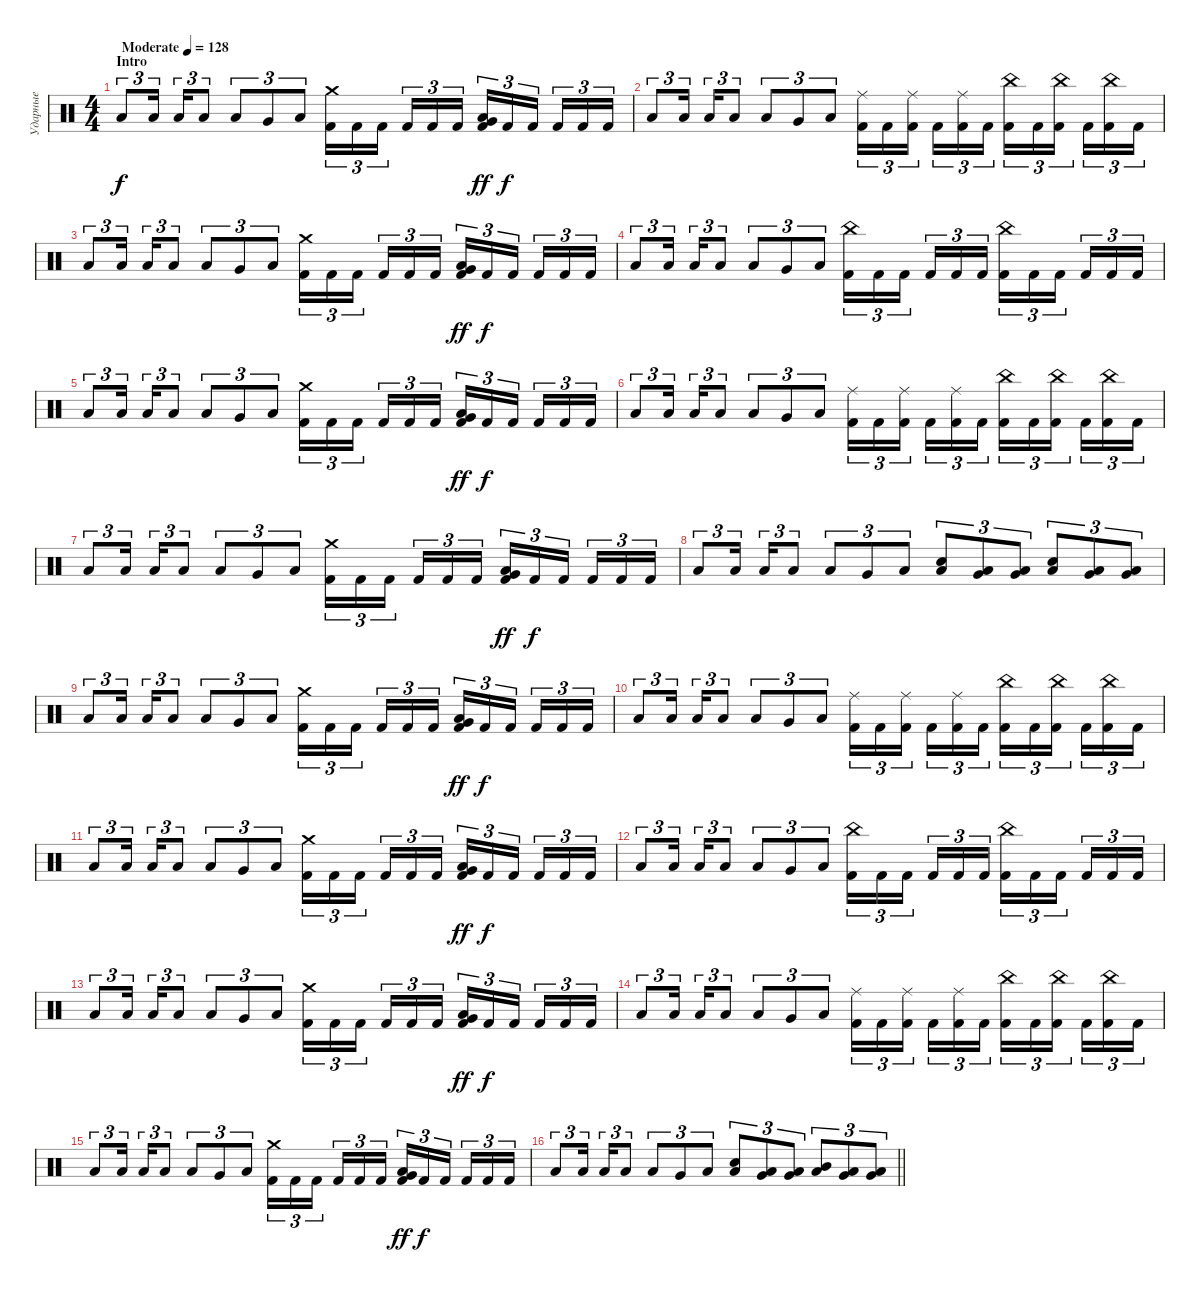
\track ("Ударные" "Ударные") {instrument percussion}
\staff {score}
\articulation defaults
\ts (4 4)
\section ("" "Intro")
\tempo (128 "Moderate")
\clef neutral
\ks c "Low Tom (hit)".8{tu (3 2) dy f} "Low Tom (hit)".16{tu (3 2) beam splitsecondary} "Low Tom (hit)".16{tu (3 2)} "Low Tom (hit)".8{tu (3 2)} "Low Tom (hit)".8{tu (3 2)} "Very Low Tom (hit)".8{tu (3 2)} "Low Floor Tom (hit)".8{tu (3 2)}
("Crash medium (hit)" "Kick (hit) 2").16{tu (3 2)} "Kick (hit) 2".16{tu (3 2)} "Kick (hit) 2".16{tu (3 2) beam splitsecondary} "Kick (hit) 2".16{tu (3 2)} "Kick (hit) 2".16{tu (3 2)} "Kick (hit) 2".16{tu (3 2)} ("Very Low Tom (hit)" "Low Floor Tom (hit)" "Kick (hit) 2").16{tu (3 2) dy ff} "Kick (hit) 2".16{tu (3 2) dy f} "Kick (hit) 2".16{tu (3 2) beam splitsecondary} "Kick (hit) 2".16{tu (3 2)} "Kick (hit) 2".16{tu (3 2)} "Kick (hit) 2".16{tu (3 2)} |
"Low Tom (hit)".8{tu (3 2)} "Low Tom (hit)".16{tu (3 2) beam splitsecondary} "Low Tom (hit)".16{tu (3 2)} "Low Tom (hit)".8{tu (3 2)} "Low Tom (hit)".8{tu (3 2)} "Very Low Tom (hit)".8{tu (3 2)} "Low Floor Tom (hit)".8{tu (3 2)} ("Ride (middle)" "Kick (hit) 2").16{tu (3 2)} "Kick (hit) 2".16{tu (3 2)} ("Ride (middle)" "Kick (hit) 2").16{tu (3 2) beam splitsecondary} "Kick (hit) 2".16{tu (3 2)} ("Ride (middle)" "Kick (hit) 2").16{tu (3 2)} "Kick (hit) 2".16{tu (3 2)} ("China (hit)" "Kick (hit) 2").16{tu (3 2)} "Kick (hit) 2".16{tu (3 2)} ("China (hit)" "Kick (hit) 2").16{tu (3 2) beam splitsecondary} "Kick (hit) 2".16{tu (3 2)} ("China (hit)" "Kick (hit) 2").16{tu (3 2)} "Kick (hit) 2".16{tu (3 2)} |
"Low Tom (hit)".8{tu (3 2)} "Low Tom (hit)".16{tu (3 2) beam splitsecondary} "Low Tom (hit)".16{tu (3 2)} "Low Tom (hit)".8{tu (3 2)} "Low Tom (hit)".8{tu (3 2)} "Very Low Tom (hit)".8{tu (3 2)} "Low Floor Tom (hit)".8{tu (3 2)} ("Crash medium (hit)" "Kick (hit) 2").16{tu (3 2)} "Kick (hit) 2".16{tu (3 2)} "Kick (hit) 2".16{tu (3 2) beam splitsecondary} "Kick (hit) 2".16{tu (3 2)} "Kick (hit) 2".16{tu (3 2)} "Kick (hit) 2".16{tu (3 2)} ("Very Low Tom (hit)" "Low Floor Tom (hit)" "Kick (hit) 2").16{tu (3 2) dy ff} "Kick (hit) 2".16{tu (3 2) dy f} "Kick (hit) 2".16{tu (3 2) beam splitsecondary} "Kick (hit) 2".16{tu (3 2)} "Kick (hit) 2".16{tu (3 2)} "Kick (hit) 2".16{tu (3 2)} |
"Low Tom (hit)".8{tu (3 2)} "Low Tom (hit)".16{tu (3 2) beam splitsecondary} "Low Tom (hit)".16{tu (3 2)} "Low Tom (hit)".8{tu (3 2)} "Low Tom (hit)".8{tu (3 2)} "Very Low Tom (hit)".8{tu (3 2)} "Low Floor Tom (hit)".8{tu (3 2)} ("China (hit)" "Kick (hit) 2").16{tu (3 2)} "Kick (hit) 2".16{tu (3 2)} "Kick (hit) 2".16{tu (3 2) beam splitsecondary} "Kick (hit) 2".16{tu (3 2)} "Kick (hit) 2".16{tu (3 2)} "Kick (hit) 2".16{tu (3 2)} ("China (hit)" "Kick (hit) 2").16{tu (3 2)} "Kick (hit) 2".16{tu (3 2)} "Kick (hit) 2".16{tu (3 2) beam splitsecondary} "Kick (hit) 2".16{tu (3 2)} "Kick (hit) 2".16{tu (3 2)} "Kick (hit) 2".16{tu (3 2)} |
"Low Tom (hit)".8{tu (3 2)} "Low Tom (hit)".16{tu (3 2) beam splitsecondary} "Low Tom (hit)".16{tu (3 2)} "Low Tom (hit)".8{tu (3 2)} "Low Tom (hit)".8{tu (3 2)} "Very Low Tom (hit)".8{tu (3 2)} "Low Floor Tom (hit)".8{tu (3 2)} ("Crash medium (hit)" "Kick (hit) 2").16{tu (3 2)} "Kick (hit) 2".16{tu (3 2)} "Kick (hit) 2".16{tu (3 2) beam splitsecondary} "Kick (hit) 2".16{tu (3 2)} "Kick (hit) 2".16{tu (3 2)} "Kick (hit) 2".16{tu (3 2)} ("Very Low Tom (hit)" "Low Floor Tom (hit)" "Kick (hit) 2").16{tu (3 2) dy ff} "Kick (hit) 2".16{tu (3 2) dy f} "Kick (hit) 2".16{tu (3 2) beam splitsecondary} "Kick (hit) 2".16{tu (3 2)} "Kick (hit) 2".16{tu (3 2)} "Kick (hit) 2".16{tu (3 2)} |
"Low Tom (hit)".8{tu (3 2)} "Low Tom (hit)".16{tu (3 2) beam splitsecondary} "Low Tom (hit)".16{tu (3 2)} "Low Tom (hit)".8{tu (3 2)} "Low Tom (hit)".8{tu (3 2)} "Very Low Tom (hit)".8{tu (3 2)} "Low Floor Tom (hit)".8{tu (3 2)} ("Ride (middle)" "Kick (hit) 2").16{tu (3 2)} "Kick (hit) 2".16{tu (3 2)} ("Ride (middle)" "Kick (hit) 2").16{tu (3 2) beam splitsecondary} "Kick (hit) 2".16{tu (3 2)} ("Ride (middle)" "Kick (hit) 2").16{tu (3 2)} "Kick (hit) 2".16{tu (3 2)} ("China (hit)" "Kick (hit) 2").16{tu (3 2)} "Kick (hit) 2".16{tu (3 2)} ("China (hit)" "Kick (hit) 2").16{tu (3 2) beam splitsecondary} "Kick (hit) 2".16{tu (3 2)} ("China (hit)" "Kick (hit) 2").16{tu (3 2)} "Kick (hit) 2".16{tu (3 2)} |
"Low Tom (hit)".8{tu (3 2)} "Low Tom (hit)".16{tu (3 2) beam splitsecondary} "Low Tom (hit)".16{tu (3 2)} "Low Tom (hit)".8{tu (3 2)} "Low Tom (hit)".8{tu (3 2)} "Very Low Tom (hit)".8{tu (3 2)} "Low Floor Tom (hit)".8{tu (3 2)} ("Crash medium (hit)" "Kick (hit) 2").16{tu (3 2)} "Kick (hit) 2".16{tu (3 2)} "Kick (hit) 2".16{tu (3 2) beam splitsecondary} "Kick (hit) 2".16{tu (3 2)} "Kick (hit) 2".16{tu (3 2)} "Kick (hit) 2".16{tu (3 2)} ("Very Low Tom (hit)" "Low Floor Tom (hit)" "Kick (hit) 2").16{tu (3 2) dy ff} "Kick (hit) 2".16{tu (3 2) dy f} "Kick (hit) 2".16{tu (3 2) beam splitsecondary} "Kick (hit) 2".16{tu (3 2)} "Kick (hit) 2".16{tu (3 2)} "Kick (hit) 2".16{tu (3 2)} |
"Low Tom (hit)".8{tu (3 2)} "Low Tom (hit)".16{tu (3 2) beam splitsecondary} "Low Tom (hit)".16{tu (3 2)} "Low Tom (hit)".8{tu (3 2)} "Low Tom (hit)".8{tu (3 2)} "Very Low Tom (hit)".8{tu (3 2)} "Low Floor Tom (hit)".8{tu (3 2)} ("Low Tom (hit)" "Electric Snare (hit)").8{tu (3 2)} ("Very Low Tom (hit)" "Low Tom (hit)").8{tu (3 2)} ("Low Floor Tom (hit)" "Very Low Tom (hit)").8{tu (3 2)} ("Low Tom (hit)" "Electric Snare (hit)").8{tu (3 2)} ("Very Low Tom (hit)" "Low Tom (hit)").8{tu (3 2)} ("Low Floor Tom (hit)" "Very Low Tom (hit)").8{tu (3 2)} |
"Low Tom (hit)".8{tu (3 2)} "Low Tom (hit)".16{tu (3 2) beam splitsecondary} "Low Tom (hit)".16{tu (3 2)} "Low Tom (hit)".8{tu (3 2)} "Low Tom (hit)".8{tu (3 2)} "Very Low Tom (hit)".8{tu (3 2)} "Low Floor Tom (hit)".8{tu (3 2)} ("Crash medium (hit)" "Kick (hit) 2").16{tu (3 2)} "Kick (hit) 2".16{tu (3 2)} "Kick (hit) 2".16{tu (3 2) beam splitsecondary} "Kick (hit) 2".16{tu (3 2)} "Kick (hit) 2".16{tu (3 2)} "Kick (hit) 2".16{tu (3 2)} ("Very Low Tom (hit)" "Low Floor Tom (hit)" "Kick (hit) 2").16{tu (3 2) dy ff} "Kick (hit) 2".16{tu (3 2) dy f} "Kick (hit) 2".16{tu (3 2) beam splitsecondary} "Kick (hit) 2".16{tu (3 2)} "Kick (hit) 2".16{tu (3 2)} "Kick (hit) 2".16{tu (3 2)} |
"Low Tom (hit)".8{tu (3 2)} "Low Tom (hit)".16{tu (3 2) beam splitsecondary} "Low Tom (hit)".16{tu (3 2)} "Low Tom (hit)".8{tu (3 2)} "Low Tom (hit)".8{tu (3 2)} "Very Low Tom (hit)".8{tu (3 2)} "Low Floor Tom (hit)".8{tu (3 2)} ("Ride (middle)" "Kick (hit) 2").16{tu (3 2)} "Kick (hit) 2".16{tu (3 2)} ("Ride (middle)" "Kick (hit) 2").16{tu (3 2) beam splitsecondary} "Kick (hit) 2".16{tu (3 2)} ("Ride (middle)" "Kick (hit) 2").16{tu (3 2)} "Kick (hit) 2".16{tu (3 2)} ("China (hit)" "Kick (hit) 2").16{tu (3 2)} "Kick (hit) 2".16{tu (3 2)} ("China (hit)" "Kick (hit) 2").16{tu (3 2) beam splitsecondary} "Kick (hit) 2".16{tu (3 2)} ("China (hit)" "Kick (hit) 2").16{tu (3 2)} "Kick (hit) 2".16{tu (3 2)} |
"Low Tom (hit)".8{tu (3 2)} "Low Tom (hit)".16{tu (3 2) beam splitsecondary} "Low Tom (hit)".16{tu (3 2)} "Low Tom (hit)".8{tu (3 2)} "Low Tom (hit)".8{tu (3 2)} "Very Low Tom (hit)".8{tu (3 2)} "Low Floor Tom (hit)".8{tu (3 2)} ("Crash medium (hit)" "Kick (hit) 2").16{tu (3 2)} "Kick (hit) 2".16{tu (3 2)} "Kick (hit) 2".16{tu (3 2) beam splitsecondary} "Kick (hit) 2".16{tu (3 2)} "Kick (hit) 2".16{tu (3 2)} "Kick (hit) 2".16{tu (3 2)} ("Very Low Tom (hit)" "Low Floor Tom (hit)" "Kick (hit) 2").16{tu (3 2) dy ff} "Kick (hit) 2".16{tu (3 2) dy f} "Kick (hit) 2".16{tu (3 2) beam splitsecondary} "Kick (hit) 2".16{tu (3 2)} "Kick (hit) 2".16{tu (3 2)} "Kick (hit) 2".16{tu (3 2)} |
"Low Tom (hit)".8{tu (3 2)} "Low Tom (hit)".16{tu (3 2) beam splitsecondary} "Low Tom (hit)".16{tu (3 2)} "Low Tom (hit)".8{tu (3 2)} "Low Tom (hit)".8{tu (3 2)} "Very Low Tom (hit)".8{tu (3 2)} "Low Floor Tom (hit)".8{tu (3 2)} ("China (hit)" "Kick (hit) 2").16{tu (3 2)} "Kick (hit) 2".16{tu (3 2)} "Kick (hit) 2".16{tu (3 2) beam splitsecondary} "Kick (hit) 2".16{tu (3 2)} "Kick (hit) 2".16{tu (3 2)} "Kick (hit) 2".16{tu (3 2)} ("China (hit)" "Kick (hit) 2").16{tu (3 2)} "Kick (hit) 2".16{tu (3 2)} "Kick (hit) 2".16{tu (3 2) beam splitsecondary} "Kick (hit) 2".16{tu (3 2)} "Kick (hit) 2".16{tu (3 2)} "Kick (hit) 2".16{tu (3 2)} |
"Low Tom (hit)".8{tu (3 2)} "Low Tom (hit)".16{tu (3 2) beam splitsecondary} "Low Tom (hit)".16{tu (3 2)} "Low Tom (hit)".8{tu (3 2)} "Low Tom (hit)".8{tu (3 2)} "Very Low Tom (hit)".8{tu (3 2)} "Low Floor Tom (hit)".8{tu (3 2)} ("Crash medium (hit)" "Kick (hit) 2").16{tu (3 2)} "Kick (hit) 2".16{tu (3 2)} "Kick (hit) 2".16{tu (3 2) beam splitsecondary} "Kick (hit) 2".16{tu (3 2)} "Kick (hit) 2".16{tu (3 2)} "Kick (hit) 2".16{tu (3 2)} ("Very Low Tom (hit)" "Low Floor Tom (hit)" "Kick (hit) 2").16{tu (3 2) dy ff} "Kick (hit) 2".16{tu (3 2) dy f} "Kick (hit) 2".16{tu (3 2) beam splitsecondary} "Kick (hit) 2".16{tu (3 2)} "Kick (hit) 2".16{tu (3 2)} "Kick (hit) 2".16{tu (3 2)} |
"Low Tom (hit)".8{tu (3 2)} "Low Tom (hit)".16{tu (3 2) beam splitsecondary} "Low Tom (hit)".16{tu (3 2)} "Low Tom (hit)".8{tu (3 2)} "Low Tom (hit)".8{tu (3 2)} "Very Low Tom (hit)".8{tu (3 2)} "Low Floor Tom (hit)".8{tu (3 2)} ("Ride (middle)" "Kick (hit) 2").16{tu (3 2)} "Kick (hit) 2".16{tu (3 2)} ("Ride (middle)" "Kick (hit) 2").16{tu (3 2) beam splitsecondary} "Kick (hit) 2".16{tu (3 2)} ("Ride (middle)" "Kick (hit) 2").16{tu (3 2)} "Kick (hit) 2".16{tu (3 2)} ("China (hit)" "Kick (hit) 2").16{tu (3 2)} "Kick (hit) 2".16{tu (3 2)} ("China (hit)" "Kick (hit) 2").16{tu (3 2) beam splitsecondary} "Kick (hit) 2".16{tu (3 2)} ("China (hit)" "Kick (hit) 2").16{tu (3 2)} "Kick (hit) 2".16{tu (3 2)} |
"Low Tom (hit)".8{tu (3 2)} "Low Tom (hit)".16{tu (3 2) beam splitsecondary} "Low Tom (hit)".16{tu (3 2)} "Low Tom (hit)".8{tu (3 2)} "Low Tom (hit)".8{tu (3 2)} "Very Low Tom (hit)".8{tu (3 2)} "Low Floor Tom (hit)".8{tu (3 2)} ("Crash medium (hit)" "Kick (hit) 2").16{tu (3 2)} "Kick (hit) 2".16{tu (3 2)} "Kick (hit) 2".16{tu (3 2) beam splitsecondary} "Kick (hit) 2".16{tu (3 2)} "Kick (hit) 2".16{tu (3 2)} "Kick (hit) 2".16{tu (3 2)} ("Very Low Tom (hit)" "Low Floor Tom (hit)" "Kick (hit) 2").16{tu (3 2) dy ff} "Kick (hit) 2".16{tu (3 2) dy f} "Kick (hit) 2".16{tu (3 2) beam splitsecondary} "Kick (hit) 2".16{tu (3 2)} "Kick (hit) 2".16{tu (3 2)} "Kick (hit) 2".16{tu (3 2)} |
\barLineRight lightlight "Low Tom (hit)".8{tu (3 2)} "Low Tom (hit)".16{tu (3 2) beam splitsecondary} "Low Tom (hit)".16{tu (3 2)} "Low Tom (hit)".8{tu (3 2)} "Low Tom (hit)".8{tu (3 2)} "Very Low Tom (hit)".8{tu (3 2)} "Low Floor Tom (hit)".8{tu (3 2)}
("Low Tom (hit)" "Electric Snare (hit)").8{tu (3 2)} ("Very Low Tom (hit)" "Low Tom (hit)").8{tu (3 2)} ("Low Floor Tom (hit)" "Very Low Tom (hit)").8{tu (3 2)} ("Low Tom (hit)" "Mid Tom (hit)").8{tu (3 2)} ("Very Low Tom (hit)" "Low Tom (hit)").8{tu (3 2)} ("Low Floor Tom (hit)" "Very Low Tom (hit)").8{tu (3 2)}
